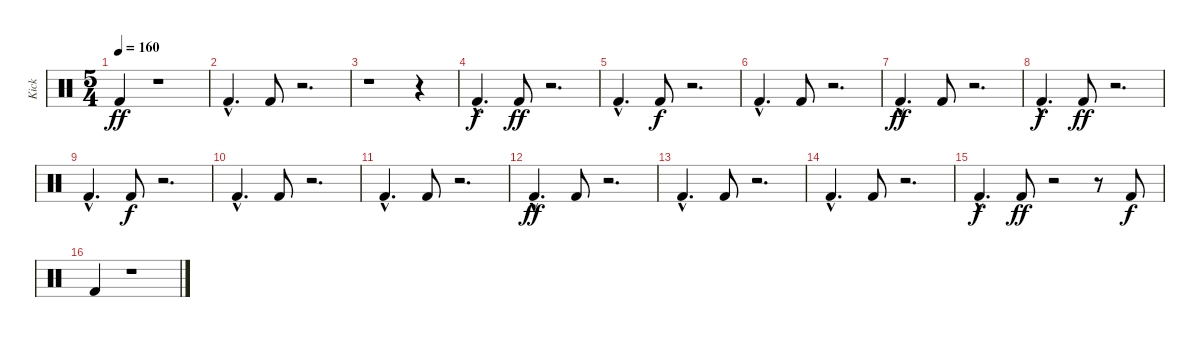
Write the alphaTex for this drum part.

\track ("Kick" "Kick") {instrument percussion}
\staff {score}
\articulation defaults
\ts (5 4)
\tempo 160
\clef neutral
\ks c "Kick (hit) 2".4{dy ff}
r.1 |
"Kick (hit) 2"{hac}.4{d} "Kick (hit) 2".8 r.2{d} |
r.1 r.4 |
"Kick (hit) 2"{hac}.4{d dy f} "Kick (hit) 2".8{dy ff} r.2{d} |
"Kick (hit) 2"{hac}.4{d} "Kick (hit) 2".8{dy f} r.2{d} |
"Kick (hit) 2"{hac}.4{d} "Kick (hit) 2".8 r.2{d} |
"Kick (hit) 2"{hac}.4{d dy ff} "Kick (hit) 2".8 r.2{d} |
"Kick (hit) 2"{hac}.4{d dy f} "Kick (hit) 2".8{dy ff} r.2{d} |
"Kick (hit) 2"{hac}.4{d} "Kick (hit) 2".8{dy f} r.2{d} |
"Kick (hit) 2"{hac}.4{d} "Kick (hit) 2".8 r.2{d} |
"Kick (hit) 2"{hac}.4{d} "Kick (hit) 2".8 r.2{d} |
"Kick (hit) 2"{hac}.4{d dy ff} "Kick (hit) 2".8 r.2{d} |
"Kick (hit) 2"{hac}.4{d} "Kick (hit) 2".8 r.2{d} |
"Kick (hit) 2"{hac}.4{d} "Kick (hit) 2".8 r.2{d} |
"Kick (hit) 2"{hac}.4{d dy f} "Kick (hit) 2".8{dy ff} r.2 r.8 "Kick (hit) 2".8{dy f} |
"Kick (hit) 2".4 r.1
